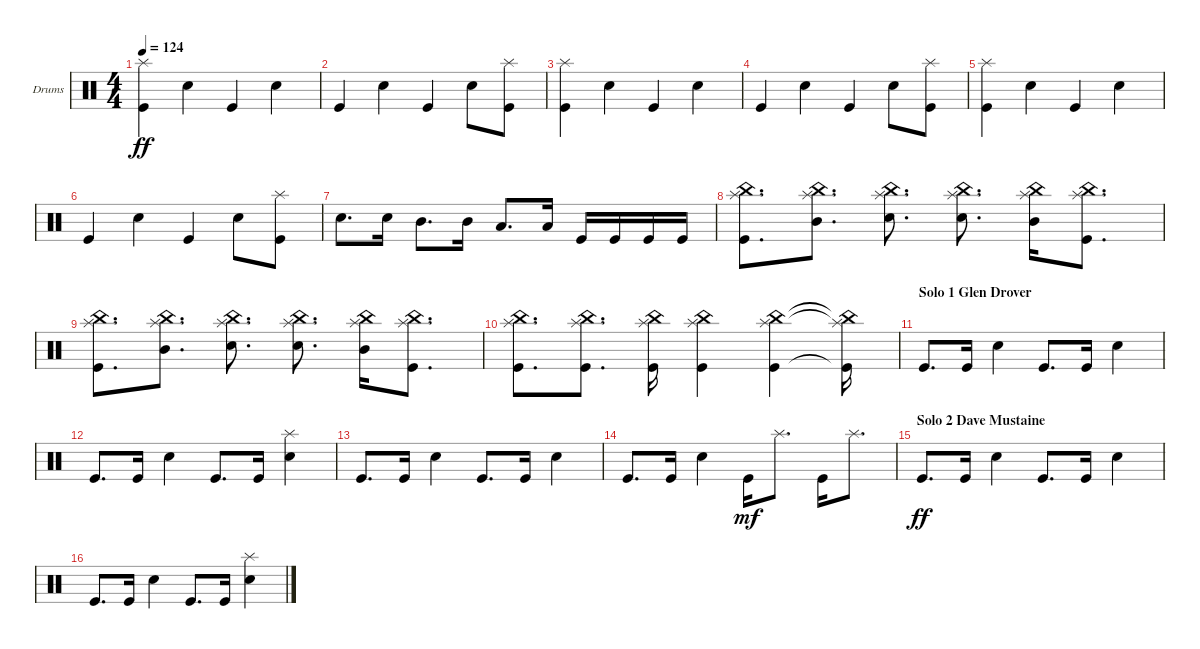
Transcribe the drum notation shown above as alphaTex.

\defaultSystemsLayout 4
\bracketExtendMode groupsimilarinstruments
\firstSystemTrackNameOrientation horizontal
\otherSystemsTrackNameOrientation horizontal
\track ("Nick Menza" "Drums") {instrument percussion}
\staff {score}
\articulation defaults
\ts (4 4)
\tempo 124
\clef neutral
\scale
0.333333
\ks c
("Splash (hit)" "Kick (hit)").4{dy ff} "Snare (hit) 2".4 "Kick (hit)".4 "Snare (hit) 2".4 |
\scale
0.333333 "Kick (hit)".4 "Snare (hit) 2".4 "Kick (hit)".4 "Snare (hit) 2".8 ("Splash (hit)" "Kick (hit)").8 |
\scale
0.333333 ("Splash (hit)" "Kick (hit)").4 "Snare (hit) 2".4 "Kick (hit)".4 "Snare (hit) 2".4 |
\scale
0.333333 "Kick (hit)".4 "Snare (hit) 2".4 "Kick (hit)".4 "Snare (hit) 2".8 ("Splash (hit)" "Kick (hit)").8 |
\scale
0.333333 ("Splash (hit)" "Kick (hit)").4 "Snare (hit) 2".4 "Kick (hit)".4 "Snare (hit) 2".4 |
\scale
0.333333 "Kick (hit)".4 "Snare (hit) 2".4 "Kick (hit)".4 "Snare (hit) 2".8 ("Splash (hit)" "Kick (hit)").8 |
\scale
0.333333 "Snare (hit) 2".8{d} "Snare (hit) 2".16 "Mid Tom (hit)".8{d} "Mid Tom (hit)".16 "Low Tom (hit)".8{d} "Low Tom (hit)".16 "Kick (hit)".16 "Kick (hit)".16 "Kick (hit)".16 "Kick (hit)".16 |
\scale
0.333333 ("China (hit)" "Splash (hit)" "Kick (hit)").8{d} ("Splash (hit)" "China (hit)" "Mid Tom (hit)").8{d} ("Splash (hit)" "China (hit)" "Snare (hit) 2").8{d} ("Splash (hit)" "China (hit)" "Snare (hit) 2").8{d} ("Splash (hit)" "China (hit)" "Mid Tom (hit)").16 ("Splash (hit)" "China (hit)" "Kick (hit)").8{d} |
\scale
0.333333 ("China (hit)" "Splash (hit)" "Kick (hit)").8{d} ("Splash (hit)" "China (hit)" "Mid Tom (hit)").8{d} ("Splash (hit)" "China (hit)" "Snare (hit) 2").8{d} ("Splash (hit)" "China (hit)" "Snare (hit) 2").8{d} ("Splash (hit)" "China (hit)" "Mid Tom (hit)").16 ("Splash (hit)" "China (hit)" "Kick (hit)").8{d} |
\scale
0.333333 ("China (hit)" "Splash (hit)" "Kick (hit)").8{d} ("Splash (hit)" "China (hit)" "Kick (hit)").8{d} ("Splash (hit)" "China (hit)" "Kick (hit)").16 ("Splash (hit)" "China (hit)" "Kick (hit)").4 ("Splash (hit)" "China (hit)" "Kick (hit)").4 ("Splash (hit)"{t} "China (hit)"{t} "Kick (hit)"{t}).16 |
\section ("" "Solo 1 Glen Drover")
\scale
0.333333 "Kick (hit)".8{d} "Kick (hit)".16 "Snare (hit) 2".4 "Kick (hit)".8{d} "Kick (hit)".16 "Snare (hit) 2".4 |
\scale
0.333333 "Kick (hit)".8{d} "Kick (hit)".16 "Snare (hit) 2".4 "Kick (hit)".8{d} "Kick (hit)".16 ("Snare (hit) 2" "Splash (hit)").4 |
\scale
0.333333 "Kick (hit)".8{d} "Kick (hit)".16 "Snare (hit) 2".4 "Kick (hit)".8{d} "Kick (hit)".16 "Snare (hit) 2".4 |
\scale
0.333333 "Kick (hit)".8{d} "Kick (hit)".16 "Snare (hit) 2".4 "Kick (hit)".16{dy mf} "Splash (hit)".8{d} "Kick (hit)".16 "Splash (hit)".8{d} |
\section ("" "Solo 2 Dave Mustaine")
\scale
0.333333 "Kick (hit)".8{d dy ff} "Kick (hit)".16 "Snare (hit) 2".4 "Kick (hit)".8{d} "Kick (hit)".16 "Snare (hit) 2".4 |
\scale
0.333333 "Kick (hit)".8{d} "Kick (hit)".16 "Snare (hit) 2".4 "Kick (hit)".8{d} "Kick (hit)".16 ("Snare (hit) 2" "Splash (hit)").4
